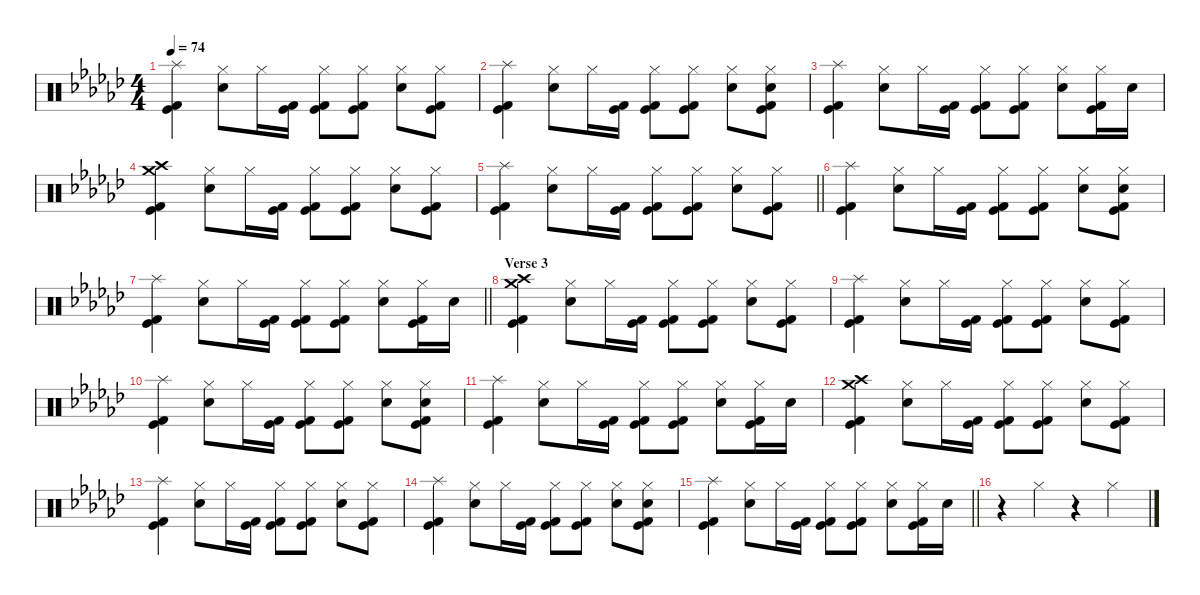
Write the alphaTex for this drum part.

\defaultSystemsLayout 4
\hideDynamics
\bracketExtendMode nobrackets
\singleTrackTrackNamePolicy hidden
\multiTrackTrackNamePolicy hidden
\firstSystemTrackNameMode fullname
\firstSystemTrackNameOrientation horizontal
\otherSystemsTrackNameOrientation horizontal
\track ("Drums, Ulrich" "drm.") {defaultSystemsLayout 4 instrument percussion}
\staff {score}
\articulation defaults
\ts (4 4)
\tempo 74
\clef neutral
\ks ebminor
("Splash (hit)"{acc forcenatural} "Kick (hit) 2"{acc forcenatural} "Kick (hit)"{acc forcenatural}).4{dy f beam Down} ("Hi-Hat (closed)"{acc forcenatural} "Snare (hit) 2"{acc forcenatural}).8{beam Down} "Hi-Hat (closed)"{acc forcenatural}.16{beam Down} ("Kick (hit) 2"{acc forcenatural} "Kick (hit)"{acc forcenatural}).16{beam Down} ("Hi-Hat (closed)"{acc forcenatural} "Kick (hit) 2"{acc forcenatural} "Kick (hit)"{acc forcenatural}).8{beam Down} ("Hi-Hat (closed)"{acc forcenatural} "Kick (hit)"{acc forcenatural} "Kick (hit) 2"{acc forcenatural}).8{beam Down} ("Hi-Hat (closed)"{acc forcenatural} "Snare (hit) 2"{acc forcenatural}).8{beam Down} ("Hi-Hat (closed)"{acc forcenatural} "Kick (hit) 2"{acc forcenatural} "Kick (hit)"{acc forcenatural}).8{beam Down} |
("Splash (hit)"{acc forcenatural} "Kick (hit) 2"{acc forcenatural} "Kick (hit)"{acc forcenatural}).4{beam Down} ("Hi-Hat (closed)"{acc forcenatural} "Snare (hit) 2"{acc forcenatural}).8{beam Down} "Hi-Hat (closed)"{acc forcenatural}.16{beam Down} ("Kick (hit) 2"{acc forcenatural} "Kick (hit)"{acc forcenatural}).16{beam Down} ("Hi-Hat (closed)"{acc forcenatural} "Kick (hit) 2"{acc forcenatural} "Kick (hit)"{acc forcenatural}).8{beam Down} ("Hi-Hat (closed)"{acc forcenatural} "Kick (hit)"{acc forcenatural} "Kick (hit) 2"{acc forcenatural}).8{beam Down} ("Hi-Hat (closed)"{acc forcenatural} "Snare (hit) 2"{acc forcenatural}).8{beam Down} ("Hi-Hat (closed)"{acc forcenatural} "Snare (hit) 2"{acc forcenatural} "Kick (hit) 2"{acc forcenatural} "Kick (hit)"{acc forcenatural}).8{beam Down} |
("Splash (hit)"{acc forcenatural} "Kick (hit) 2"{acc forcenatural} "Kick (hit)"{acc forcenatural}).4{beam Down} ("Hi-Hat (closed)"{acc forcenatural} "Snare (hit) 2"{acc forcenatural}).8{beam Down} "Hi-Hat (closed)"{acc forcenatural}.16{beam Down} ("Kick (hit) 2"{acc forcenatural} "Kick (hit)"{acc forcenatural}).16{beam Down} ("Hi-Hat (closed)"{acc forcenatural} "Kick (hit) 2"{acc forcenatural} "Kick (hit)"{acc forcenatural}).8{beam Down} ("Hi-Hat (closed)"{acc forcenatural} "Kick (hit)"{acc forcenatural} "Kick (hit) 2"{acc forcenatural}).8{beam Down} ("Hi-Hat (closed)"{acc forcenatural} "Snare (hit) 2"{acc forcenatural}).8{beam Down} ("Hi-Hat (closed)"{acc forcenatural} "Kick (hit) 2"{acc forcenatural} "Kick (hit)"{acc forcenatural}).16{beam Down} "Snare (hit) 2"{acc forcenatural}.16{beam Down} |
("Crash medium (hit)"{acc forcenatural} "Crash high (hit)"{acc forcenatural} "Kick (hit) 2"{acc forcenatural} "Kick (hit)"{acc forcenatural}).4{beam Down} ("Hi-Hat (closed)"{acc forcenatural} "Snare (hit) 2"{acc forcenatural}).8{beam Down} "Hi-Hat (closed)"{acc forcenatural}.16{beam Down} ("Kick (hit) 2"{acc forcenatural} "Kick (hit)"{acc forcenatural}).16{beam Down} ("Hi-Hat (closed)"{acc forcenatural} "Kick (hit) 2"{acc forcenatural} "Kick (hit)"{acc forcenatural}).8{beam Down} ("Hi-Hat (closed)"{acc forcenatural} "Kick (hit)"{acc forcenatural} "Kick (hit) 2"{acc forcenatural}).8{beam Down} ("Hi-Hat (closed)"{acc forcenatural} "Snare (hit) 2"{acc forcenatural}).8{beam Down} ("Hi-Hat (closed)"{acc forcenatural} "Kick (hit) 2"{acc forcenatural} "Kick (hit)"{acc forcenatural}).8{beam Down} |
\barLineRight lightlight
("Splash (hit)"{acc forcenatural} "Kick (hit) 2"{acc forcenatural} "Kick (hit)"{acc forcenatural}).4{beam Down} ("Hi-Hat (closed)"{acc forcenatural} "Snare (hit) 2"{acc forcenatural}).8{beam Down} "Hi-Hat (closed)"{acc forcenatural}.16{beam Down} ("Kick (hit) 2"{acc forcenatural} "Kick (hit)"{acc forcenatural}).16{beam Down} ("Hi-Hat (closed)"{acc forcenatural} "Kick (hit) 2"{acc forcenatural} "Kick (hit)"{acc forcenatural}).8{beam Down} ("Hi-Hat (closed)"{acc forcenatural} "Kick (hit)"{acc forcenatural} "Kick (hit) 2"{acc forcenatural}).8{beam Down} ("Hi-Hat (closed)"{acc forcenatural} "Snare (hit) 2"{acc forcenatural}).8{beam Down} ("Hi-Hat (closed)"{acc forcenatural} "Kick (hit) 2"{acc forcenatural} "Kick (hit)"{acc forcenatural}).8{beam Down} |
("Splash (hit)"{acc forcenatural} "Kick (hit) 2"{acc forcenatural} "Kick (hit)"{acc forcenatural}).4{beam Down} ("Hi-Hat (closed)"{acc forcenatural} "Snare (hit) 2"{acc forcenatural}).8{beam Down} "Hi-Hat (closed)"{acc forcenatural}.16{beam Down} ("Kick (hit) 2"{acc forcenatural} "Kick (hit)"{acc forcenatural}).16{beam Down} ("Hi-Hat (closed)"{acc forcenatural} "Kick (hit) 2"{acc forcenatural} "Kick (hit)"{acc forcenatural}).8{beam Down} ("Hi-Hat (closed)"{acc forcenatural} "Kick (hit)"{acc forcenatural} "Kick (hit) 2"{acc forcenatural}).8{beam Down} ("Hi-Hat (closed)"{acc forcenatural} "Snare (hit) 2"{acc forcenatural}).8{beam Down} ("Hi-Hat (closed)"{acc forcenatural} "Snare (hit) 2"{acc forcenatural} "Kick (hit) 2"{acc forcenatural} "Kick (hit)"{acc forcenatural}).8{beam Down} |
\barLineRight lightlight
("Splash (hit)"{acc forcenatural} "Kick (hit) 2"{acc forcenatural} "Kick (hit)"{acc forcenatural}).4{beam Down} ("Hi-Hat (closed)"{acc forcenatural} "Snare (hit) 2"{acc forcenatural}).8{beam Down} "Hi-Hat (closed)"{acc forcenatural}.16{beam Down} ("Kick (hit) 2"{acc forcenatural} "Kick (hit)"{acc forcenatural}).16{beam Down} ("Hi-Hat (closed)"{acc forcenatural} "Kick (hit) 2"{acc forcenatural} "Kick (hit)"{acc forcenatural}).8{beam Down} ("Hi-Hat (closed)"{acc forcenatural} "Kick (hit)"{acc forcenatural} "Kick (hit) 2"{acc forcenatural}).8{beam Down} ("Hi-Hat (closed)"{acc forcenatural} "Snare (hit) 2"{acc forcenatural}).8{beam Down} ("Hi-Hat (closed)"{acc forcenatural} "Kick (hit) 2"{acc forcenatural} "Kick (hit)"{acc forcenatural}).16{beam Down} "Snare (hit) 2"{acc forcenatural}.16{beam Down} |
\section ("" "Verse 3")
("Crash medium (hit)"{acc forcenatural} "Crash high (hit)"{acc forcenatural} "Kick (hit) 2"{acc forcenatural} "Kick (hit)"{acc forcenatural}).4{beam Down} ("Hi-Hat (closed)"{acc forcenatural} "Snare (hit) 2"{acc forcenatural}).8{beam Down} "Hi-Hat (closed)"{acc forcenatural}.16{beam Down} ("Kick (hit) 2"{acc forcenatural} "Kick (hit)"{acc forcenatural}).16{beam Down} ("Hi-Hat (closed)"{acc forcenatural} "Kick (hit) 2"{acc forcenatural} "Kick (hit)"{acc forcenatural}).8{beam Down} ("Hi-Hat (closed)"{acc forcenatural} "Kick (hit)"{acc forcenatural} "Kick (hit) 2"{acc forcenatural}).8{beam Down} ("Hi-Hat (closed)"{acc forcenatural} "Snare (hit) 2"{acc forcenatural}).8{beam Down} ("Hi-Hat (closed)"{acc forcenatural} "Kick (hit) 2"{acc forcenatural} "Kick (hit)"{acc forcenatural}).8{beam Down} |
("Splash (hit)"{acc forcenatural} "Kick (hit) 2"{acc forcenatural} "Kick (hit)"{acc forcenatural}).4{beam Down} ("Hi-Hat (closed)"{acc forcenatural} "Snare (hit) 2"{acc forcenatural}).8{beam Down} "Hi-Hat (closed)"{acc forcenatural}.16{beam Down} ("Kick (hit) 2"{acc forcenatural} "Kick (hit)"{acc forcenatural}).16{beam Down} ("Hi-Hat (closed)"{acc forcenatural} "Kick (hit) 2"{acc forcenatural} "Kick (hit)"{acc forcenatural}).8{beam Down} ("Hi-Hat (closed)"{acc forcenatural} "Kick (hit)"{acc forcenatural} "Kick (hit) 2"{acc forcenatural}).8{beam Down} ("Hi-Hat (closed)"{acc forcenatural} "Snare (hit) 2"{acc forcenatural}).8{beam Down} ("Hi-Hat (closed)"{acc forcenatural} "Kick (hit) 2"{acc forcenatural} "Kick (hit)"{acc forcenatural}).8{beam Down} |
("Splash (hit)"{acc forcenatural} "Kick (hit) 2"{acc forcenatural} "Kick (hit)"{acc forcenatural}).4{beam Down} ("Hi-Hat (closed)"{acc forcenatural} "Snare (hit) 2"{acc forcenatural}).8{beam Down} "Hi-Hat (closed)"{acc forcenatural}.16{beam Down} ("Kick (hit) 2"{acc forcenatural} "Kick (hit)"{acc forcenatural}).16{beam Down} ("Hi-Hat (closed)"{acc forcenatural} "Kick (hit) 2"{acc forcenatural} "Kick (hit)"{acc forcenatural}).8{beam Down} ("Hi-Hat (closed)"{acc forcenatural} "Kick (hit)"{acc forcenatural} "Kick (hit) 2"{acc forcenatural}).8{beam Down} ("Hi-Hat (closed)"{acc forcenatural} "Snare (hit) 2"{acc forcenatural}).8{beam Down} ("Hi-Hat (closed)"{acc forcenatural} "Snare (hit) 2"{acc forcenatural} "Kick (hit) 2"{acc forcenatural} "Kick (hit)"{acc forcenatural}).8{beam Down} |
("Splash (hit)"{acc forcenatural} "Kick (hit) 2"{acc forcenatural} "Kick (hit)"{acc forcenatural}).4{beam Down} ("Hi-Hat (closed)"{acc forcenatural} "Snare (hit) 2"{acc forcenatural}).8{beam Down} "Hi-Hat (closed)"{acc forcenatural}.16{beam Down} ("Kick (hit) 2"{acc forcenatural} "Kick (hit)"{acc forcenatural}).16{beam Down} ("Hi-Hat (closed)"{acc forcenatural} "Kick (hit) 2"{acc forcenatural} "Kick (hit)"{acc forcenatural}).8{beam Down} ("Hi-Hat (closed)"{acc forcenatural} "Kick (hit)"{acc forcenatural} "Kick (hit) 2"{acc forcenatural}).8{beam Down} ("Hi-Hat (closed)"{acc forcenatural} "Snare (hit) 2"{acc forcenatural}).8{beam Down} ("Hi-Hat (closed)"{acc forcenatural} "Kick (hit) 2"{acc forcenatural} "Kick (hit)"{acc forcenatural}).16{beam Down} "Snare (hit) 2"{acc forcenatural}.16{beam Down} |
("Crash medium (hit)"{acc forcenatural} "Crash high (hit)"{acc forcenatural} "Kick (hit) 2"{acc forcenatural} "Kick (hit)"{acc forcenatural}).4{beam Down} ("Hi-Hat (closed)"{acc forcenatural} "Snare (hit) 2"{acc forcenatural}).8{beam Down} "Hi-Hat (closed)"{acc forcenatural}.16{beam Down} ("Kick (hit) 2"{acc forcenatural} "Kick (hit)"{acc forcenatural}).16{beam Down} ("Hi-Hat (closed)"{acc forcenatural} "Kick (hit) 2"{acc forcenatural} "Kick (hit)"{acc forcenatural}).8{beam Down} ("Hi-Hat (closed)"{acc forcenatural} "Kick (hit)"{acc forcenatural} "Kick (hit) 2"{acc forcenatural}).8{beam Down} ("Hi-Hat (closed)"{acc forcenatural} "Snare (hit) 2"{acc forcenatural}).8{beam Down} ("Hi-Hat (closed)"{acc forcenatural} "Kick (hit) 2"{acc forcenatural} "Kick (hit)"{acc forcenatural}).8{beam Down} |
("Splash (hit)"{acc forcenatural} "Kick (hit) 2"{acc forcenatural} "Kick (hit)"{acc forcenatural}).4{beam Down} ("Hi-Hat (closed)"{acc forcenatural} "Snare (hit) 2"{acc forcenatural}).8{beam Down} "Hi-Hat (closed)"{acc forcenatural}.16{beam Down} ("Kick (hit) 2"{acc forcenatural} "Kick (hit)"{acc forcenatural}).16{beam Down} ("Hi-Hat (closed)"{acc forcenatural} "Kick (hit) 2"{acc forcenatural} "Kick (hit)"{acc forcenatural}).8{beam Down} ("Hi-Hat (closed)"{acc forcenatural} "Kick (hit)"{acc forcenatural} "Kick (hit) 2"{acc forcenatural}).8{beam Down} ("Hi-Hat (closed)"{acc forcenatural} "Snare (hit) 2"{acc forcenatural}).8{beam Down} ("Hi-Hat (closed)"{acc forcenatural} "Kick (hit) 2"{acc forcenatural} "Kick (hit)"{acc forcenatural}).8{beam Down} |
("Splash (hit)"{acc forcenatural} "Kick (hit) 2"{acc forcenatural} "Kick (hit)"{acc forcenatural}).4{beam Down} ("Hi-Hat (closed)"{acc forcenatural} "Snare (hit) 2"{acc forcenatural}).8{beam Down} "Hi-Hat (closed)"{acc forcenatural}.16{beam Down} ("Kick (hit) 2"{acc forcenatural} "Kick (hit)"{acc forcenatural}).16{beam Down} ("Hi-Hat (closed)"{acc forcenatural} "Kick (hit) 2"{acc forcenatural} "Kick (hit)"{acc forcenatural}).8{beam Down} ("Hi-Hat (closed)"{acc forcenatural} "Kick (hit)"{acc forcenatural} "Kick (hit) 2"{acc forcenatural}).8{beam Down} ("Hi-Hat (closed)"{acc forcenatural} "Snare (hit) 2"{acc forcenatural}).8{beam Down} ("Hi-Hat (closed)"{acc forcenatural} "Snare (hit) 2"{acc forcenatural} "Kick (hit) 2"{acc forcenatural} "Kick (hit)"{acc forcenatural}).8{beam Down} |
\barLineRight lightlight
("Splash (hit)"{acc forcenatural} "Kick (hit) 2"{acc forcenatural} "Kick (hit)"{acc forcenatural}).4{beam Down} ("Hi-Hat (closed)"{acc forcenatural} "Snare (hit) 2"{acc forcenatural}).8{beam Down} "Hi-Hat (closed)"{acc forcenatural}.16{beam Down} ("Kick (hit) 2"{acc forcenatural} "Kick (hit)"{acc forcenatural}).16{beam Down} ("Hi-Hat (closed)"{acc forcenatural} "Kick (hit) 2"{acc forcenatural} "Kick (hit)"{acc forcenatural}).8{beam Down} ("Hi-Hat (closed)"{acc forcenatural} "Kick (hit)"{acc forcenatural} "Kick (hit) 2"{acc forcenatural}).8{beam Down} ("Hi-Hat (closed)"{acc forcenatural} "Snare (hit) 2"{acc forcenatural}).8{beam Down} ("Hi-Hat (closed)"{acc forcenatural} "Kick (hit) 2"{acc forcenatural} "Kick (hit)"{acc forcenatural}).16{beam Down} "Snare (hit) 2"{acc forcenatural}.16{beam Down} |
r.4{beam Down} "Hi-Hat (closed)"{acc forcenatural}.4{beam Down} r.4{beam Down} "Hi-Hat (closed)"{acc forcenatural}.4{beam Down}
